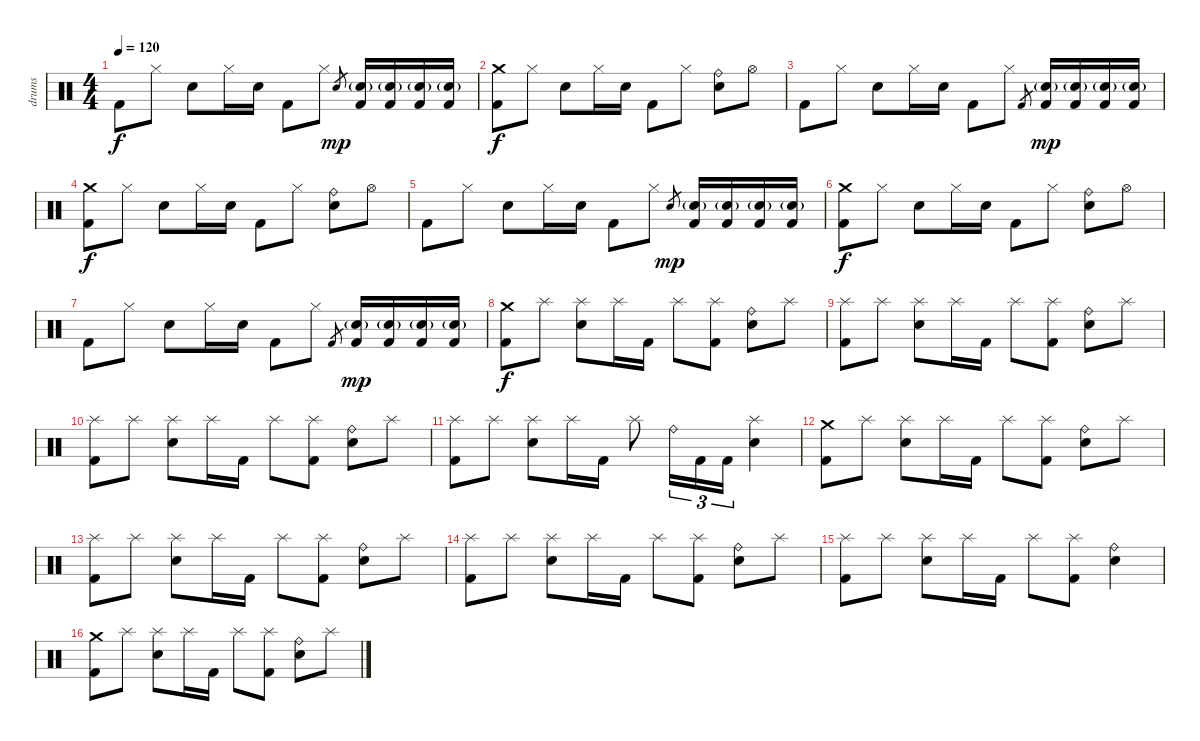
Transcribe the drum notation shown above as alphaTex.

\track ("drums" "drums") {instrument percussion}
\staff {score}
\articulation defaults
\ts (4 4)
\tempo 120
\clef neutral
\ks c "Kick (hit) 2".8{dy f} "Hi-Hat (closed)".8 "Electric Snare (hit)".8 "Hi-Hat (closed)".16 "Electric Snare (hit)".16 "Kick (hit) 2".8 "Hi-Hat (closed)".8 "Electric Snare (hit)".8{gr dy mp}
("Electric Snare (hit)"{g} "Kick (hit) 2").16 ("Electric Snare (hit)"{g} "Kick (hit) 2").16 ("Electric Snare (hit)"{g} "Kick (hit) 2").16 ("Electric Snare (hit)"{g} "Kick (hit) 2").16 |
("Crash medium (hit)" "Kick (hit) 2").8{dy f} "Hi-Hat (closed)".8 "Electric Snare (hit)".8 "Hi-Hat (closed)".16 "Electric Snare (hit)".16 "Kick (hit) 2".8 "Hi-Hat (closed)".8 ("Ride (bell)" "Electric Snare (hit)").8 "Hi-Hat (open)".8 |
"Kick (hit) 2".8 "Hi-Hat (closed)".8 "Electric Snare (hit)".8 "Hi-Hat (closed)".16 "Electric Snare (hit)".16 "Kick (hit) 2".8 "Hi-Hat (closed)".8 "Kick (hit) 2".8{gr} ("Electric Snare (hit)"{g} "Kick (hit) 2").16{dy mp} ("Electric Snare (hit)"{g} "Kick (hit) 2").16 ("Electric Snare (hit)"{g} "Kick (hit) 2").16 ("Electric Snare (hit)"{g} "Kick (hit) 2").16 |
("Crash medium (hit)" "Kick (hit) 2").8{dy f} "Hi-Hat (closed)".8 "Electric Snare (hit)".8 "Hi-Hat (closed)".16 "Electric Snare (hit)".16 "Kick (hit) 2".8 "Hi-Hat (closed)".8 ("Ride (bell)" "Electric Snare (hit)").8 "Hi-Hat (open)".8 |
"Kick (hit) 2".8 "Hi-Hat (closed)".8 "Electric Snare (hit)".8 "Hi-Hat (closed)".16 "Electric Snare (hit)".16 "Kick (hit) 2".8 "Hi-Hat (closed)".8 "Electric Snare (hit)".8{gr dy mp} ("Electric Snare (hit)"{g} "Kick (hit) 2").16 ("Electric Snare (hit)"{g} "Kick (hit) 2").16 ("Electric Snare (hit)"{g} "Kick (hit) 2").16 ("Electric Snare (hit)"{g} "Kick (hit) 2").16 |
("Crash medium (hit)" "Kick (hit) 2").8{dy f} "Hi-Hat (closed)".8 "Electric Snare (hit)".8 "Hi-Hat (closed)".16 "Electric Snare (hit)".16 "Kick (hit) 2".8 "Hi-Hat (closed)".8 ("Ride (bell)" "Electric Snare (hit)").8 "Hi-Hat (open)".8 |
"Kick (hit) 2".8 "Hi-Hat (closed)".8 "Electric Snare (hit)".8 "Hi-Hat (closed)".16 "Electric Snare (hit)".16 "Kick (hit) 2".8 "Hi-Hat (closed)".8 "Kick (hit) 2".8{gr} ("Electric Snare (hit)"{g} "Kick (hit) 2").16{dy mp} ("Electric Snare (hit)"{g} "Kick (hit) 2").16 ("Electric Snare (hit)"{g} "Kick (hit) 2").16 ("Electric Snare (hit)"{g} "Kick (hit) 2").16 |
("Crash medium (hit)" "Kick (hit) 2").8{dy f} "Splash (hit)".8 ("Splash (hit)" "Electric Snare (hit)").8 "Splash (hit)".16 "Kick (hit) 2".16 "Splash (hit)".8 ("Splash (hit)" "Kick (hit) 2").8 ("Ride (bell)" "Electric Snare (hit)").8 "Splash (hit)".8 |
("Splash (hit)" "Kick (hit) 2").8 "Splash (hit)".8 ("Splash (hit)" "Electric Snare (hit)").8 "Splash (hit)".16 "Kick (hit) 2".16 "Splash (hit)".8 ("Splash (hit)" "Kick (hit) 2").8 ("Ride (bell)" "Electric Snare (hit)").8 "Splash (hit)".8 |
("Splash (hit)" "Kick (hit) 2").8 "Splash (hit)".8 ("Splash (hit)" "Electric Snare (hit)").8 "Splash (hit)".16 "Kick (hit) 2".16 "Splash (hit)".8 ("Splash (hit)" "Kick (hit) 2").8 ("Ride (bell)" "Electric Snare (hit)").8 "Splash (hit)".8 |
("Splash (hit)" "Kick (hit) 2").8 "Splash (hit)".8 ("Splash (hit)" "Electric Snare (hit)").8 "Splash (hit)".16 "Kick (hit) 2".16 "Splash (hit)".8 "Ride (bell)".16{tu (3 2)} "Kick (hit) 2".16{tu (3 2)} "Kick (hit) 2".16{tu (3 2)} ("Splash (hit)" "Electric Snare (hit)").4 |
("Crash medium (hit)" "Kick (hit) 2").8 "Splash (hit)".8 ("Splash (hit)" "Electric Snare (hit)").8 "Splash (hit)".16 "Kick (hit) 2".16 "Splash (hit)".8 ("Splash (hit)" "Kick (hit) 2").8 ("Ride (bell)" "Electric Snare (hit)").8 "Splash (hit)".8 |
("Splash (hit)" "Kick (hit) 2").8 "Splash (hit)".8 ("Splash (hit)" "Electric Snare (hit)").8 "Splash (hit)".16 "Kick (hit) 2".16 "Splash (hit)".8 ("Splash (hit)" "Kick (hit) 2").8 ("Ride (bell)" "Electric Snare (hit)").8 "Splash (hit)".8 |
("Splash (hit)" "Kick (hit) 2").8 "Splash (hit)".8 ("Splash (hit)" "Electric Snare (hit)").8 "Splash (hit)".16 "Kick (hit) 2".16 "Splash (hit)".8 ("Splash (hit)" "Kick (hit) 2").8 ("Ride (bell)" "Electric Snare (hit)").8 "Splash (hit)".8 |
("Splash (hit)" "Kick (hit) 2").8 "Splash (hit)".8 ("Splash (hit)" "Electric Snare (hit)").8 "Splash (hit)".16 "Kick (hit) 2".16 "Splash (hit)".8 ("Splash (hit)" "Kick (hit) 2").8 ("Ride (bell)" "Electric Snare (hit)").4 |
("Crash medium (hit)" "Kick (hit) 2").8 "Splash (hit)".8 ("Splash (hit)" "Electric Snare (hit)").8 "Splash (hit)".16 "Kick (hit) 2".16 "Splash (hit)".8 ("Splash (hit)" "Kick (hit) 2").8 ("Ride (bell)" "Electric Snare (hit)").8 "Splash (hit)".8
